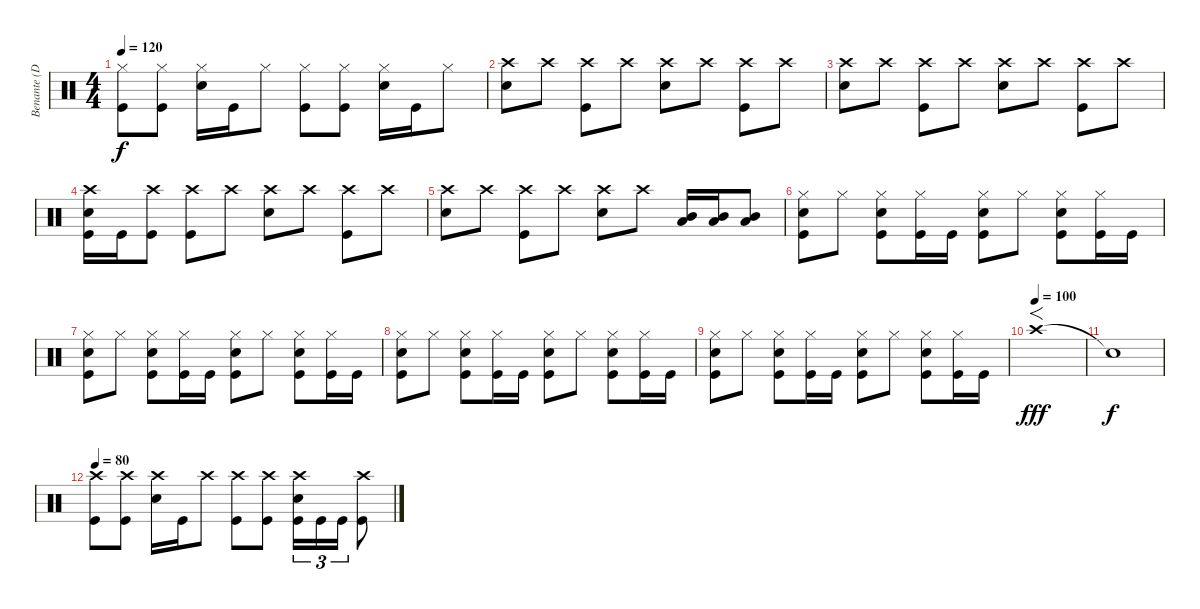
\track ("Benante (Drums)" "Benante (D") {instrument percussion}
\staff {score}
\articulation defaults
\ts (4 4)
\tempo 120
\clef neutral
\ks c
("Hi-Hat (closed)" "Kick (hit)").8{dy f} ("Hi-Hat (closed)" "Kick (hit)").8 ("Hi-Hat (closed)" "Snare (hit) 2").16 "Kick (hit)".16 "Hi-Hat (closed)".8 ("Hi-Hat (closed)" "Kick (hit)").8 ("Hi-Hat (closed)" "Kick (hit)").8 ("Hi-Hat (closed)" "Snare (hit) 2").16 "Kick (hit)".16 "Hi-Hat (closed)".8 |
("Crash high (hit)" "Snare (hit) 2").8 "Crash high (hit)".8 ("Crash high (hit)" "Kick (hit)").8 "Crash high (hit)".8 ("Crash high (hit)" "Snare (hit) 2").8 "Crash high (hit)".8 ("Crash high (hit)" "Kick (hit)").8 "Crash high (hit)".8 |
("Crash high (hit)" "Snare (hit) 2").8 "Crash high (hit)".8 ("Crash high (hit)" "Kick (hit)").8 "Crash high (hit)".8 ("Crash high (hit)" "Snare (hit) 2").8 "Crash high (hit)".8 ("Crash high (hit)" "Kick (hit)").8 "Crash high (hit)".8 |
("Crash high (hit)" "Snare (hit) 2" "Kick (hit)").16 "Kick (hit)".16 ("Crash high (hit)" "Kick (hit)").8 ("Crash high (hit)" "Kick (hit)").8 "Crash high (hit)".8 ("Crash high (hit)" "Snare (hit) 2").8 "Crash high (hit)".8 ("Crash high (hit)" "Kick (hit)").8 "Crash high (hit)".8 |
("Crash high (hit)" "Snare (hit) 2").8 "Crash high (hit)".8 ("Crash high (hit)" "Kick (hit)").8 "Crash high (hit)".8 ("Crash high (hit)" "Snare (hit) 2").8 "Crash high (hit)".8 ("Mid Tom (hit)" "Low Tom (hit)").16 ("Mid Tom (hit)" "Low Tom (hit)").16 ("Mid Tom (hit)" "Low Tom (hit)").8 |
("Hi-Hat (closed)" "Snare (hit) 2" "Kick (hit)").8 "Hi-Hat (closed)".8 ("Hi-Hat (closed)" "Snare (hit) 2" "Kick (hit)").8 ("Hi-Hat (closed)" "Kick (hit)").16 "Kick (hit)".16 ("Hi-Hat (closed)" "Snare (hit) 2" "Kick (hit)").8 "Hi-Hat (closed)".8 ("Hi-Hat (closed)" "Snare (hit) 2" "Kick (hit)").8 ("Hi-Hat (closed)" "Kick (hit)").16 "Kick (hit)".16 |
("Hi-Hat (closed)" "Snare (hit) 2" "Kick (hit)").8 "Hi-Hat (closed)".8 ("Hi-Hat (closed)" "Snare (hit) 2" "Kick (hit)").8 ("Hi-Hat (closed)" "Kick (hit)").16 "Kick (hit)".16 ("Hi-Hat (closed)" "Snare (hit) 2" "Kick (hit)").8 "Hi-Hat (closed)".8 ("Hi-Hat (closed)" "Snare (hit) 2" "Kick (hit)").8 ("Hi-Hat (closed)" "Kick (hit)").16 "Kick (hit)".16 |
("Hi-Hat (closed)" "Snare (hit) 2" "Kick (hit)").8 "Hi-Hat (closed)".8 ("Hi-Hat (closed)" "Snare (hit) 2" "Kick (hit)").8 ("Hi-Hat (closed)" "Kick (hit)").16 "Kick (hit)".16 ("Hi-Hat (closed)" "Snare (hit) 2" "Kick (hit)").8 "Hi-Hat (closed)".8 ("Hi-Hat (closed)" "Snare (hit) 2" "Kick (hit)").8 ("Hi-Hat (closed)" "Kick (hit)").16 "Kick (hit)".16 |
("Hi-Hat (closed)" "Snare (hit) 2" "Kick (hit)").8 "Hi-Hat (closed)".8 ("Hi-Hat (closed)" "Snare (hit) 2" "Kick (hit)").8 ("Hi-Hat (closed)" "Kick (hit)").16 "Kick (hit)".16 ("Hi-Hat (closed)" "Snare (hit) 2" "Kick (hit)").8 "Hi-Hat (closed)".8 ("Hi-Hat (closed)" "Snare (hit) 2" "Kick (hit)").8 ("Hi-Hat (closed)" "Kick (hit)").16 "Kick (hit)".16 |
\tempo (100)
"Crash high (hit)".1{f dy fff} |
"Snare (hit)"{t}.1{dy f} |
\tempo 80
("Crash high (hit)" "Kick (hit)").8 ("Crash high (hit)" "Kick (hit)").8 ("Crash high (hit)" "Snare (hit) 2").16 "Kick (hit)".16 "Crash high (hit)".8 ("Crash high (hit)" "Kick (hit)").8 ("Crash high (hit)" "Kick (hit)").8 ("Crash high (hit)" "Snare (hit) 2" "Kick (hit)").16{tu (3 2)} "Kick (hit)".16{tu (3 2)} "Kick (hit)".16{tu (3 2)} ("Crash high (hit)" "Kick (hit)").8
